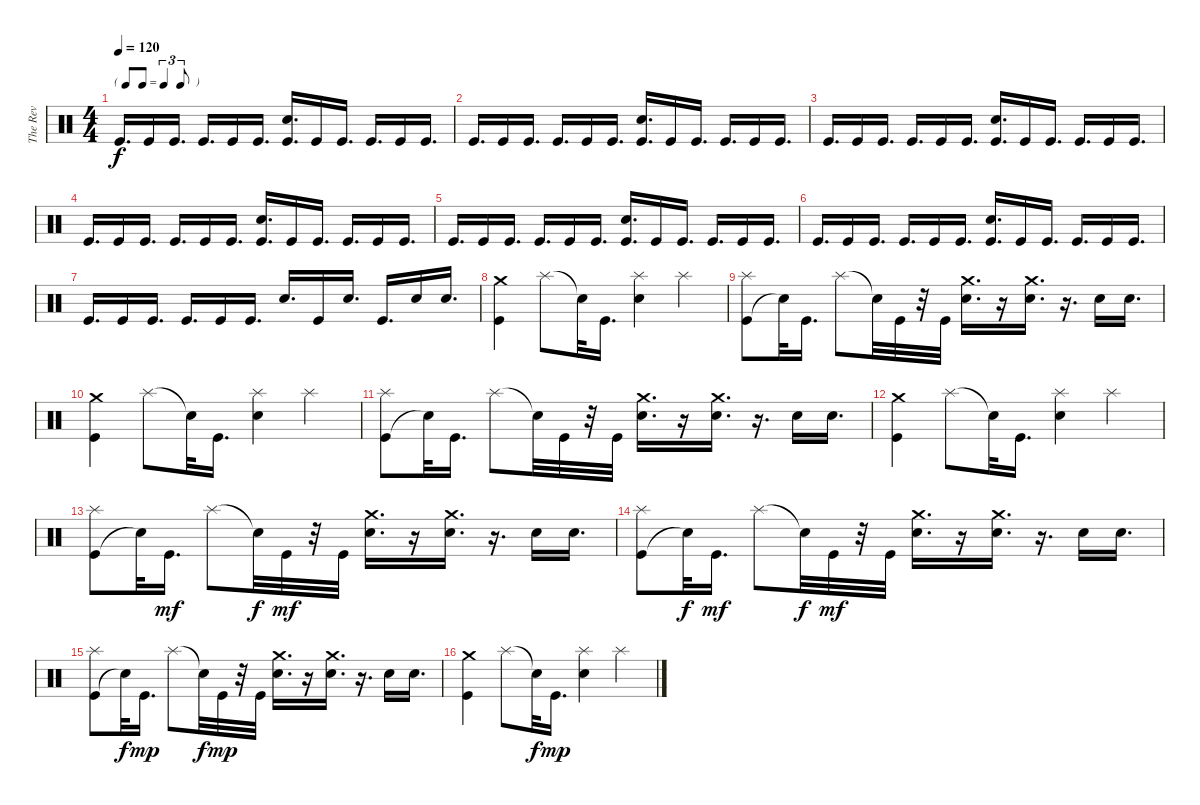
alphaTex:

\track ("The Rev" "The Rev") {instrument percussion}
\staff {score}
\articulation defaults
\ts (4 4)
\tf triplet8th
\tempo 120
\clef neutral
\ks c "Kick (hit)".16{d dy f} "Kick (hit)".16 "Kick (hit)".16{d} "Kick (hit)".16{d} "Kick (hit)".16 "Kick (hit)".16{d}
("Electric Snare (hit)" "Kick (hit)").16{d} "Kick (hit)".16 "Kick (hit)".16{d} "Kick (hit)".16{d} "Kick (hit)".16 "Kick (hit)".16{d} |
"Kick (hit)".16{d} "Kick (hit)".16 "Kick (hit)".16{d} "Kick (hit)".16{d} "Kick (hit)".16 "Kick (hit)".16{d} ("Electric Snare (hit)" "Kick (hit)").16{d} "Kick (hit)".16 "Kick (hit)".16{d} "Kick (hit)".16{d} "Kick (hit)".16 "Kick (hit)".16{d} |
"Kick (hit)".16{d} "Kick (hit)".16 "Kick (hit)".16{d} "Kick (hit)".16{d} "Kick (hit)".16 "Kick (hit)".16{d} ("Electric Snare (hit)" "Kick (hit)").16{d} "Kick (hit)".16 "Kick (hit)".16{d} "Kick (hit)".16{d} "Kick (hit)".16 "Kick (hit)".16{d} |
"Kick (hit)".16{d} "Kick (hit)".16 "Kick (hit)".16{d} "Kick (hit)".16{d} "Kick (hit)".16 "Kick (hit)".16{d} ("Electric Snare (hit)" "Kick (hit)").16{d} "Kick (hit)".16 "Kick (hit)".16{d} "Kick (hit)".16{d} "Kick (hit)".16 "Kick (hit)".16{d} |
"Kick (hit)".16{d} "Kick (hit)".16 "Kick (hit)".16{d} "Kick (hit)".16{d} "Kick (hit)".16 "Kick (hit)".16{d} ("Electric Snare (hit)" "Kick (hit)").16{d} "Kick (hit)".16 "Kick (hit)".16{d} "Kick (hit)".16{d} "Kick (hit)".16 "Kick (hit)".16{d} |
"Kick (hit)".16{d} "Kick (hit)".16 "Kick (hit)".16{d} "Kick (hit)".16{d} "Kick (hit)".16 "Kick (hit)".16{d} ("Electric Snare (hit)" "Kick (hit)").16{d} "Kick (hit)".16 "Kick (hit)".16{d} "Kick (hit)".16{d} "Kick (hit)".16 "Kick (hit)".16{d} |
"Kick (hit)".16{d} "Kick (hit)".16 "Kick (hit)".16{d} "Kick (hit)".16{d} "Kick (hit)".16 "Kick (hit)".16{d} "Electric Snare (hit)".16{d} "Kick (hit)".16 "Electric Snare (hit)".16{d} "Kick (hit)".16{d} "Electric Snare (hit)".16 "Electric Snare (hit)".16{d} |
("Kick (hit)" "Crash medium (hit)").4 "Splash (hit)".8 "Snare (hit)"{t}.32 "Kick (hit)".16{d} ("Electric Snare (hit)" "Splash (hit)").4 "Splash (hit)".4 |
("Kick (hit)" "Splash (hit)").8 "Snare (hit)"{t}.32 "Kick (hit)".16{d} "Splash (hit)".8 "Snare (hit)"{t}.32 "Kick (hit)".32 r.32 "Kick (hit)".32 ("Electric Snare (hit)" "Crash medium (hit)").16{d} r.16 ("Crash medium (hit)" "Electric Snare (hit)").16{d} r.16{d} "Electric Snare (hit)".16 "Electric Snare (hit)".16{d} |
("Kick (hit)" "Crash medium (hit)").4 "Splash (hit)".8 "Snare (hit)"{t}.32 "Kick (hit)".16{d} ("Electric Snare (hit)" "Splash (hit)").4 "Splash (hit)".4 |
("Kick (hit)" "Splash (hit)").8 "Snare (hit)"{t}.32 "Kick (hit)".16{d} "Splash (hit)".8 "Snare (hit)"{t}.32 "Kick (hit)".32 r.32 "Kick (hit)".32 ("Electric Snare (hit)" "Crash medium (hit)").16{d} r.16 ("Crash medium (hit)" "Electric Snare (hit)").16{d} r.16{d} "Electric Snare (hit)".16 "Electric Snare (hit)".16{d} |
("Kick (hit)" "Crash medium (hit)").4 "Splash (hit)".8 "Snare (hit)"{t}.32 "Kick (hit)".16{d} ("Electric Snare (hit)" "Splash (hit)").4 "Splash (hit)".4 |
("Kick (hit)" "Splash (hit)").8 "Snare (hit)"{t}.32 "Kick (hit)".16{d dy mf} "Splash (hit)".8 "Snare (hit)"{t}.32{dy f} "Kick (hit)".32{dy mf} r.32 "Kick (hit)".32 ("Electric Snare (hit)" "Crash medium (hit)").16{d} r.16 ("Crash medium (hit)" "Electric Snare (hit)").16{d} r.16{d} "Electric Snare (hit)".16 "Electric Snare (hit)".16{d} |
("Kick (hit)" "Splash (hit)").8 "Snare (hit)"{t}.32{dy f} "Kick (hit)".16{d dy mf} "Splash (hit)".8 "Snare (hit)"{t}.32{dy f} "Kick (hit)".32{dy mf} r.32 "Kick (hit)".32 ("Electric Snare (hit)" "Crash medium (hit)").16{d} r.16 ("Crash medium (hit)" "Electric Snare (hit)").16{d} r.16{d} "Electric Snare (hit)".16 "Electric Snare (hit)".16{d} |
("Kick (hit)" "Splash (hit)").8 "Snare (hit)"{t}.32{dy f} "Kick (hit)".16{d dy mp} "Splash (hit)".8 "Snare (hit)"{t}.32{dy f} "Kick (hit)".32{dy mp} r.32 "Kick (hit)".32 ("Electric Snare (hit)" "Crash medium (hit)").16{d} r.16 ("Crash medium (hit)" "Electric Snare (hit)").16{d} r.16{d} "Electric Snare (hit)".16 "Electric Snare (hit)".16{d} |
("Kick (hit)" "Crash medium (hit)").4 "Splash (hit)".8 "Snare (hit)"{t}.32{dy f} "Kick (hit)".16{d dy mp} ("Electric Snare (hit)" "Splash (hit)").4 "Splash (hit)".4
